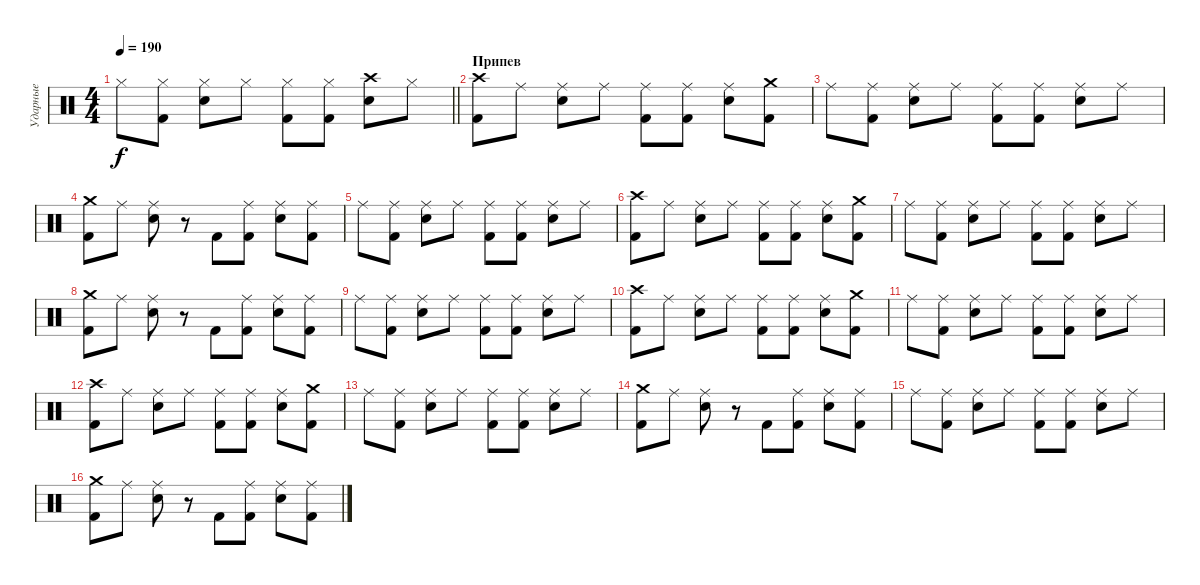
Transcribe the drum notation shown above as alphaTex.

\track ("Ударные" "Ударные") {instrument percussion}
\staff {score}
\articulation defaults
\ts (4 4)
\tempo 190
\clef neutral
\barLineRight lightlight
\ks c "Hi-Hat (closed)".8{dy f}
("Hi-Hat (closed)" "Kick (hit) 2").8 ("Hi-Hat (closed)" "Electric Snare (hit)").8 "Hi-Hat (closed)".8 ("Hi-Hat (closed)" "Kick (hit) 2").8 ("Hi-Hat (closed)" "Kick (hit) 2").8 ("Crash high (hit)" "Electric Snare (hit)").8 "Hi-Hat (closed)".8 |
\section ("" "Припев")
("Crash high (hit)" "Kick (hit) 2").8 "Ride (middle)".8 ("Ride (middle)" "Electric Snare (hit)").8 "Ride (middle)".8 ("Ride (middle)" "Kick (hit) 2").8 ("Ride (middle)" "Kick (hit) 2").8 ("Ride (middle)" "Electric Snare (hit)").8 ("Crash medium (hit)" "Kick (hit) 2").8 |
"Ride (middle)".8 ("Ride (middle)" "Kick (hit) 2").8 ("Ride (middle)" "Electric Snare (hit)").8 "Ride (middle)".8 ("Ride (middle)" "Kick (hit) 2").8 ("Ride (middle)" "Kick (hit) 2").8 ("Ride (middle)" "Electric Snare (hit)").8 "Ride (middle)".8 |
("Crash medium (hit)" "Kick (hit) 2").8 "Ride (middle)".8 ("Ride (middle)" "Electric Snare (hit)").8 r.8 "Kick (hit) 2".8 ("Ride (middle)" "Kick (hit) 2").8 ("Ride (middle)" "Electric Snare (hit)").8 ("Ride (middle)" "Kick (hit) 2").8 |
"Ride (middle)".8 ("Ride (middle)" "Kick (hit) 2").8 ("Ride (middle)" "Electric Snare (hit)").8 "Ride (middle)".8 ("Ride (middle)" "Kick (hit) 2").8 ("Ride (middle)" "Kick (hit) 2").8 ("Ride (middle)" "Electric Snare (hit)").8 "Ride (middle)".8 |
("Crash high (hit)" "Kick (hit) 2").8 "Ride (middle)".8 ("Ride (middle)" "Electric Snare (hit)").8 "Ride (middle)".8 ("Ride (middle)" "Kick (hit) 2").8 ("Ride (middle)" "Kick (hit) 2").8 ("Ride (middle)" "Electric Snare (hit)").8 ("Crash medium (hit)" "Kick (hit) 2").8 |
"Ride (middle)".8 ("Ride (middle)" "Kick (hit) 2").8 ("Ride (middle)" "Electric Snare (hit)").8 "Ride (middle)".8 ("Ride (middle)" "Kick (hit) 2").8 ("Ride (middle)" "Kick (hit) 2").8 ("Ride (middle)" "Electric Snare (hit)").8 "Ride (middle)".8 |
("Crash medium (hit)" "Kick (hit) 2").8 "Ride (middle)".8 ("Ride (middle)" "Electric Snare (hit)").8 r.8 "Kick (hit) 2".8 ("Ride (middle)" "Kick (hit) 2").8 ("Ride (middle)" "Electric Snare (hit)").8 ("Ride (middle)" "Kick (hit) 2").8 |
"Ride (middle)".8 ("Ride (middle)" "Kick (hit) 2").8 ("Ride (middle)" "Electric Snare (hit)").8 "Ride (middle)".8 ("Ride (middle)" "Kick (hit) 2").8 ("Ride (middle)" "Kick (hit) 2").8 ("Ride (middle)" "Electric Snare (hit)").8 "Ride (middle)".8 |
("Crash high (hit)" "Kick (hit) 2").8 "Ride (middle)".8 ("Ride (middle)" "Electric Snare (hit)").8 "Ride (middle)".8 ("Ride (middle)" "Kick (hit) 2").8 ("Ride (middle)" "Kick (hit) 2").8 ("Ride (middle)" "Electric Snare (hit)").8 ("Crash medium (hit)" "Kick (hit) 2").8 |
"Ride (middle)".8 ("Ride (middle)" "Kick (hit) 2").8 ("Ride (middle)" "Electric Snare (hit)").8 "Ride (middle)".8 ("Ride (middle)" "Kick (hit) 2").8 ("Ride (middle)" "Kick (hit) 2").8 ("Ride (middle)" "Electric Snare (hit)").8 "Ride (middle)".8 |
("Crash high (hit)" "Kick (hit) 2").8 "Ride (middle)".8 ("Ride (middle)" "Electric Snare (hit)").8 "Ride (middle)".8 ("Ride (middle)" "Kick (hit) 2").8 ("Ride (middle)" "Kick (hit) 2").8 ("Ride (middle)" "Electric Snare (hit)").8 ("Crash medium (hit)" "Kick (hit) 2").8 |
"Ride (middle)".8 ("Ride (middle)" "Kick (hit) 2").8 ("Ride (middle)" "Electric Snare (hit)").8 "Ride (middle)".8 ("Ride (middle)" "Kick (hit) 2").8 ("Ride (middle)" "Kick (hit) 2").8 ("Ride (middle)" "Electric Snare (hit)").8 "Ride (middle)".8 |
("Crash medium (hit)" "Kick (hit) 2").8 "Ride (middle)".8 ("Ride (middle)" "Electric Snare (hit)").8 r.8 "Kick (hit) 2".8 ("Ride (middle)" "Kick (hit) 2").8 ("Ride (middle)" "Electric Snare (hit)").8 ("Ride (middle)" "Kick (hit) 2").8 |
"Ride (middle)".8 ("Ride (middle)" "Kick (hit) 2").8 ("Ride (middle)" "Electric Snare (hit)").8 "Ride (middle)".8 ("Ride (middle)" "Kick (hit) 2").8 ("Ride (middle)" "Kick (hit) 2").8 ("Ride (middle)" "Electric Snare (hit)").8 "Ride (middle)".8 |
("Crash medium (hit)" "Kick (hit) 2").8 "Ride (middle)".8 ("Ride (middle)" "Electric Snare (hit)").8 r.8 "Kick (hit) 2".8 ("Ride (middle)" "Kick (hit) 2").8 ("Ride (middle)" "Electric Snare (hit)").8 ("Ride (middle)" "Kick (hit) 2").8
